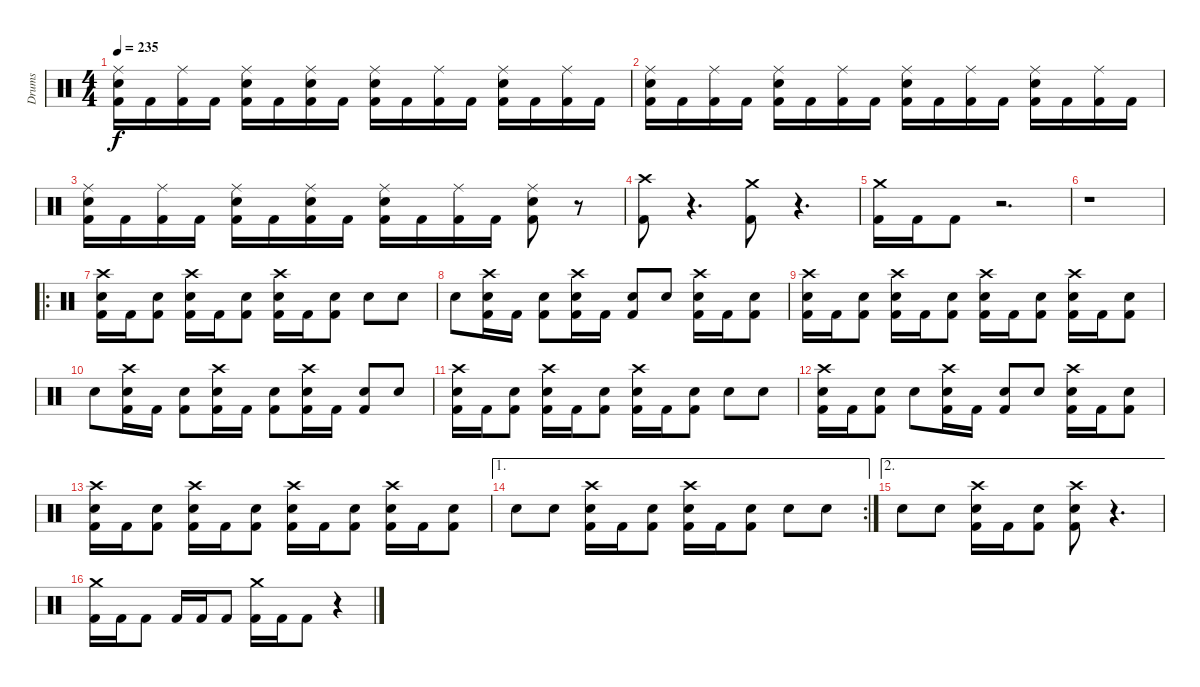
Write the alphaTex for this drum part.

\track ("Drums" "Drums") {instrument percussion}
\staff {score}
\articulation defaults
\ts (4 4)
\tempo 235
\clef neutral
\ks c
("Ride (middle)" "Electric Snare (hit)" "Kick (hit) 2").16{dy f} "Kick (hit) 2".16 ("Ride (middle)" "Kick (hit) 2").16 "Kick (hit) 2".16 ("Ride (middle)" "Electric Snare (hit)" "Kick (hit) 2").16 "Kick (hit) 2".16 ("Ride (middle)" "Electric Snare (hit)" "Kick (hit) 2").16 "Kick (hit) 2".16 ("Ride (middle)" "Electric Snare (hit)" "Kick (hit) 2").16 "Kick (hit) 2".16 ("Ride (middle)" "Kick (hit) 2").16 "Kick (hit) 2".16 ("Ride (middle)" "Electric Snare (hit)" "Kick (hit) 2").16 "Kick (hit) 2".16 ("Ride (middle)" "Kick (hit) 2").16 "Kick (hit) 2".16 |
("Ride (middle)" "Electric Snare (hit)" "Kick (hit) 2").16 "Kick (hit) 2".16 ("Ride (middle)" "Kick (hit) 2").16 "Kick (hit) 2".16 ("Ride (middle)" "Electric Snare (hit)" "Kick (hit) 2").16 "Kick (hit) 2".16 ("Ride (middle)" "Kick (hit) 2").16 "Kick (hit) 2".16 ("Ride (middle)" "Electric Snare (hit)" "Kick (hit) 2").16 "Kick (hit) 2".16 ("Ride (middle)" "Kick (hit) 2").16 "Kick (hit) 2".16 ("Ride (middle)" "Electric Snare (hit)" "Kick (hit) 2").16 "Kick (hit) 2".16 ("Ride (middle)" "Kick (hit) 2").16 "Kick (hit) 2".16 |
("Ride (middle)" "Electric Snare (hit)" "Kick (hit) 2").16 "Kick (hit) 2".16 ("Ride (middle)" "Kick (hit) 2").16 "Kick (hit) 2".16 ("Ride (middle)" "Electric Snare (hit)" "Kick (hit) 2").16 "Kick (hit) 2".16 ("Ride (middle)" "Electric Snare (hit)" "Kick (hit) 2").16 "Kick (hit) 2".16 ("Ride (middle)" "Electric Snare (hit)" "Kick (hit) 2").16 "Kick (hit) 2".16 ("Ride (middle)" "Kick (hit) 2").16 "Kick (hit) 2".16 ("Ride (middle)" "Electric Snare (hit)" "Kick (hit) 2").8 r.8 |
("Crash high (hit)" "Kick (hit) 2").8 r.4{d} ("Crash medium (hit)" "Kick (hit) 2").8 r.4{d} |
("Crash medium (hit)" "Kick (hit) 2").16 "Kick (hit) 2".16 "Kick (hit) 2".8 r.2{d} |
r.1 |
\ro
("Crash high (hit)" "Electric Snare (hit)" "Kick (hit) 2").16 "Kick (hit) 2".16 ("Electric Snare (hit)" "Kick (hit) 2").8 ("Crash high (hit)" "Electric Snare (hit)" "Kick (hit) 2").16 "Kick (hit) 2".16 ("Electric Snare (hit)" "Kick (hit) 2").8 ("Crash high (hit)" "Electric Snare (hit)" "Kick (hit) 2").16 "Kick (hit) 2".16 ("Electric Snare (hit)" "Kick (hit) 2").8 "Electric Snare (hit)".8 "Electric Snare (hit)".8 |
"Electric Snare (hit)".8 ("Crash high (hit)" "Electric Snare (hit)" "Kick (hit) 2").16 "Kick (hit) 2".16 ("Electric Snare (hit)" "Kick (hit) 2").8 ("Crash high (hit)" "Electric Snare (hit)" "Kick (hit) 2").16 "Kick (hit) 2".16 ("Electric Snare (hit)" "Kick (hit) 2").8 "Electric Snare (hit)".8 ("Crash high (hit)" "Electric Snare (hit)" "Kick (hit) 2").16 "Kick (hit) 2".16 ("Electric Snare (hit)" "Kick (hit) 2").8 |
("Crash high (hit)" "Electric Snare (hit)" "Kick (hit) 2").16 "Kick (hit) 2".16 ("Electric Snare (hit)" "Kick (hit) 2").8 ("Crash high (hit)" "Electric Snare (hit)" "Kick (hit) 2").16 "Kick (hit) 2".16 ("Electric Snare (hit)" "Kick (hit) 2").8 ("Crash high (hit)" "Electric Snare (hit)" "Kick (hit) 2").16 "Kick (hit) 2".16 ("Electric Snare (hit)" "Kick (hit) 2").8 ("Crash high (hit)" "Electric Snare (hit)" "Kick (hit) 2").16 "Kick (hit) 2".16 ("Electric Snare (hit)" "Kick (hit) 2").8 |
"Electric Snare (hit)".8 ("Crash high (hit)" "Electric Snare (hit)" "Kick (hit) 2").16 "Kick (hit) 2".16 ("Electric Snare (hit)" "Kick (hit) 2").8 ("Crash high (hit)" "Electric Snare (hit)" "Kick (hit) 2").16 "Kick (hit) 2".16 ("Electric Snare (hit)" "Kick (hit) 2").8 ("Crash high (hit)" "Electric Snare (hit)" "Kick (hit) 2").16 "Kick (hit) 2".16 ("Electric Snare (hit)" "Kick (hit) 2").8 "Electric Snare (hit)".8 |
("Crash high (hit)" "Electric Snare (hit)" "Kick (hit) 2").16 "Kick (hit) 2".16 ("Electric Snare (hit)" "Kick (hit) 2").8 ("Crash high (hit)" "Electric Snare (hit)" "Kick (hit) 2").16 "Kick (hit) 2".16 ("Electric Snare (hit)" "Kick (hit) 2").8 ("Crash high (hit)" "Electric Snare (hit)" "Kick (hit) 2").16 "Kick (hit) 2".16 ("Electric Snare (hit)" "Kick (hit) 2").8 "Electric Snare (hit)".8 "Electric Snare (hit)".8 |
("Crash high (hit)" "Electric Snare (hit)" "Kick (hit) 2").16 "Kick (hit) 2".16 ("Electric Snare (hit)" "Kick (hit) 2").8 "Electric Snare (hit)".8 ("Crash high (hit)" "Electric Snare (hit)" "Kick (hit) 2").16 "Kick (hit) 2".16 ("Electric Snare (hit)" "Kick (hit) 2").8 "Electric Snare (hit)".8 ("Crash high (hit)" "Electric Snare (hit)" "Kick (hit) 2").16 "Kick (hit) 2".16 ("Electric Snare (hit)" "Kick (hit) 2").8 |
("Crash high (hit)" "Electric Snare (hit)" "Kick (hit) 2").16 "Kick (hit) 2".16 ("Electric Snare (hit)" "Kick (hit) 2").8 ("Crash high (hit)" "Electric Snare (hit)" "Kick (hit) 2").16 "Kick (hit) 2".16 ("Electric Snare (hit)" "Kick (hit) 2").8 ("Crash high (hit)" "Electric Snare (hit)" "Kick (hit) 2").16 "Kick (hit) 2".16 ("Electric Snare (hit)" "Kick (hit) 2").8 ("Crash high (hit)" "Electric Snare (hit)" "Kick (hit) 2").16 "Kick (hit) 2".16 ("Electric Snare (hit)" "Kick (hit) 2").8 |
\ae 1
\rc 2 "Electric Snare (hit)".8 "Electric Snare (hit)".8
("Crash high (hit)" "Electric Snare (hit)" "Kick (hit) 2").16 "Kick (hit) 2".16 ("Electric Snare (hit)" "Kick (hit) 2").8 ("Crash high (hit)" "Electric Snare (hit)" "Kick (hit) 2").16 "Kick (hit) 2".16 ("Electric Snare (hit)" "Kick (hit) 2").8 "Electric Snare (hit)".8 "Electric Snare (hit)".8 |
\ae 2 "Electric Snare (hit)".8 "Electric Snare (hit)".8
("Crash high (hit)" "Electric Snare (hit)" "Kick (hit) 2").16 "Kick (hit) 2".16 ("Electric Snare (hit)" "Kick (hit) 2").8 ("Crash high (hit)" "Electric Snare (hit)" "Kick (hit) 2").8 r.4{d} |
("Crash medium (hit)" "Kick (hit) 2").16 "Kick (hit) 2".16 "Kick (hit) 2".8 "Kick (hit) 2".16 "Kick (hit) 2".16 "Kick (hit) 2".8 ("Crash medium (hit)" "Kick (hit) 2").16 "Kick (hit) 2".16 "Kick (hit) 2".8 r.4
